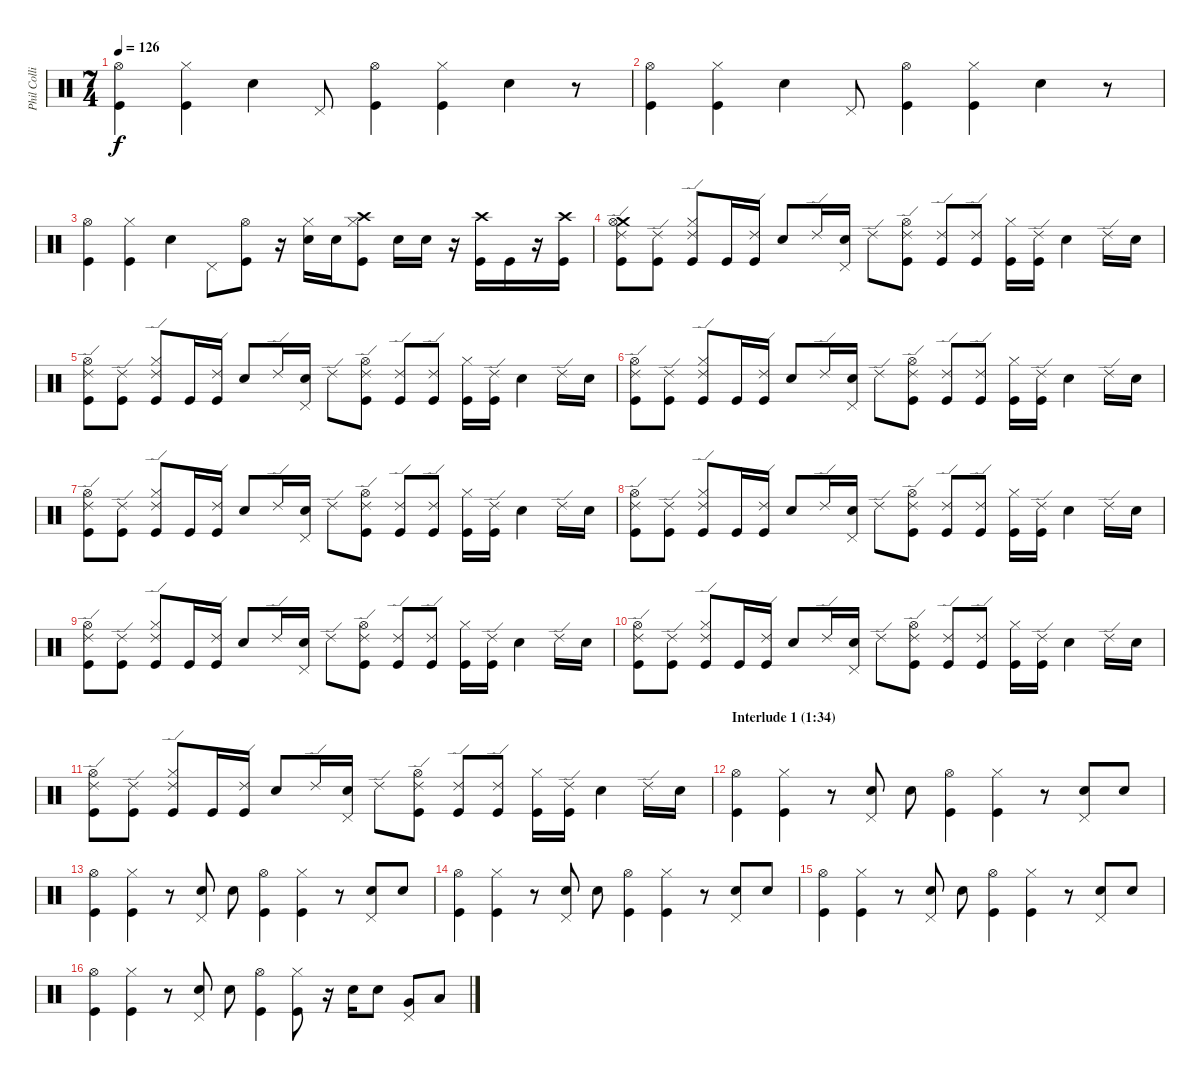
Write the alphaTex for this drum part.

\track ("Phil Collins (drums)" "Phil Colli") {instrument percussion}
\staff {score}
\articulation defaults
\ts (7 4)
\tempo 126
\clef neutral
\ks c
("Hi-Hat (open)" "Kick (hit)").4{dy f} ("Hi-Hat (closed)" "Kick (hit)").4 "Snare (hit) 2".4 "Pedal Hi-Hat (hit)".8 ("Hi-Hat (open)" "Kick (hit)").4 ("Hi-Hat (closed)" "Kick (hit)").4 "Snare (hit) 2".4 r.8 |
("Hi-Hat (open)" "Kick (hit)").4 ("Hi-Hat (closed)" "Kick (hit)").4 "Snare (hit) 2".4 "Pedal Hi-Hat (hit)".8 ("Hi-Hat (open)" "Kick (hit)").4 ("Hi-Hat (closed)" "Kick (hit)").4 "Snare (hit) 2".4 r.8 |
("Hi-Hat (open)" "Kick (hit)").4 ("Hi-Hat (closed)" "Kick (hit)").4 "Snare (hit) 2".4 "Pedal Hi-Hat (hit)".8 ("Hi-Hat (open)" "Kick (hit)").8 r.16 ("Hi-Hat (closed)" "Snare (hit) 2").16 "Snare (hit) 2".16 ("Crash high (hit)" "Hi-Hat (closed)" "Kick (hit)").8 "Snare (hit) 2".16 "Snare (hit) 2".16 r.16 ("Crash high (hit)" "Kick (hit)").16 "Kick (hit)".16 r.16 ("Crash high (hit)" "Kick (hit)").16 |
("Crash medium (hit)" "Ride (edge) 2" "Hi-Hat (open)" "Kick (hit)").8 ("Ride (edge) 2" "Kick (hit)").8 ("Ride (edge) 2" "Hi-Hat (closed)" "Kick (hit)").8 "Kick (hit)".16 ("Ride (edge) 2" "Kick (hit)").16 "Snare (hit) 2".8 "Ride (edge) 2".16 ("Pedal Hi-Hat (hit)" "Snare (hit) 2").16 "Ride (edge) 2".8 ("Ride (edge) 2" "Hi-Hat (open)" "Kick (hit)").8 ("Ride (edge) 2" "Kick (hit)").8 ("Ride (edge) 2" "Kick (hit)").8 ("Hi-Hat (closed)" "Kick (hit)").16 ("Ride (edge) 2" "Kick (hit)").16 "Snare (hit) 2".4 "Ride (edge) 2".16 "Snare (hit) 2".16 |
("Ride (edge) 2" "Hi-Hat (open)" "Kick (hit)").8 ("Ride (edge) 2" "Kick (hit)").8 ("Ride (edge) 2" "Hi-Hat (closed)" "Kick (hit)").8 "Kick (hit)".16 ("Ride (edge) 2" "Kick (hit)").16 "Snare (hit) 2".8 "Ride (edge) 2".16 ("Pedal Hi-Hat (hit)" "Snare (hit) 2").16 "Ride (edge) 2".8 ("Ride (edge) 2" "Hi-Hat (open)" "Kick (hit)").8 ("Ride (edge) 2" "Kick (hit)").8 ("Ride (edge) 2" "Kick (hit)").8 ("Hi-Hat (closed)" "Kick (hit)").16 ("Ride (edge) 2" "Kick (hit)").16 "Snare (hit) 2".4 "Ride (edge) 2".16 "Snare (hit) 2".16 |
("Ride (edge) 2" "Hi-Hat (open)" "Kick (hit)").8 ("Ride (edge) 2" "Kick (hit)").8 ("Ride (edge) 2" "Hi-Hat (closed)" "Kick (hit)").8 "Kick (hit)".16 ("Ride (edge) 2" "Kick (hit)").16 "Snare (hit) 2".8 "Ride (edge) 2".16 ("Pedal Hi-Hat (hit)" "Snare (hit) 2").16 "Ride (edge) 2".8 ("Ride (edge) 2" "Hi-Hat (open)" "Kick (hit)").8 ("Ride (edge) 2" "Kick (hit)").8 ("Ride (edge) 2" "Kick (hit)").8 ("Hi-Hat (closed)" "Kick (hit)").16 ("Ride (edge) 2" "Kick (hit)").16 "Snare (hit) 2".4 "Ride (edge) 2".16 "Snare (hit) 2".16 |
("Ride (edge) 2" "Hi-Hat (open)" "Kick (hit)").8 ("Ride (edge) 2" "Kick (hit)").8 ("Ride (edge) 2" "Hi-Hat (closed)" "Kick (hit)").8 "Kick (hit)".16 ("Ride (edge) 2" "Kick (hit)").16 "Snare (hit) 2".8 "Ride (edge) 2".16 ("Pedal Hi-Hat (hit)" "Snare (hit) 2").16 "Ride (edge) 2".8 ("Ride (edge) 2" "Hi-Hat (open)" "Kick (hit)").8 ("Ride (edge) 2" "Kick (hit)").8 ("Ride (edge) 2" "Kick (hit)").8 ("Hi-Hat (closed)" "Kick (hit)").16 ("Ride (edge) 2" "Kick (hit)").16 "Snare (hit) 2".4 "Ride (edge) 2".16 "Snare (hit) 2".16 |
("Ride (edge) 2" "Hi-Hat (open)" "Kick (hit)").8 ("Ride (edge) 2" "Kick (hit)").8 ("Ride (edge) 2" "Hi-Hat (closed)" "Kick (hit)").8 "Kick (hit)".16 ("Ride (edge) 2" "Kick (hit)").16 "Snare (hit) 2".8 "Ride (edge) 2".16 ("Pedal Hi-Hat (hit)" "Snare (hit) 2").16 "Ride (edge) 2".8 ("Ride (edge) 2" "Hi-Hat (open)" "Kick (hit)").8 ("Ride (edge) 2" "Kick (hit)").8 ("Ride (edge) 2" "Kick (hit)").8 ("Hi-Hat (closed)" "Kick (hit)").16 ("Ride (edge) 2" "Kick (hit)").16 "Snare (hit) 2".4 "Ride (edge) 2".16 "Snare (hit) 2".16 |
("Ride (edge) 2" "Hi-Hat (open)" "Kick (hit)").8 ("Ride (edge) 2" "Kick (hit)").8 ("Ride (edge) 2" "Hi-Hat (closed)" "Kick (hit)").8 "Kick (hit)".16 ("Ride (edge) 2" "Kick (hit)").16 "Snare (hit) 2".8 "Ride (edge) 2".16 ("Pedal Hi-Hat (hit)" "Snare (hit) 2").16 "Ride (edge) 2".8 ("Ride (edge) 2" "Hi-Hat (open)" "Kick (hit)").8 ("Ride (edge) 2" "Kick (hit)").8 ("Ride (edge) 2" "Kick (hit)").8 ("Hi-Hat (closed)" "Kick (hit)").16 ("Ride (edge) 2" "Kick (hit)").16 "Snare (hit) 2".4 "Ride (edge) 2".16 "Snare (hit) 2".16 |
("Ride (edge) 2" "Hi-Hat (open)" "Kick (hit)").8 ("Ride (edge) 2" "Kick (hit)").8 ("Ride (edge) 2" "Hi-Hat (closed)" "Kick (hit)").8 "Kick (hit)".16 ("Ride (edge) 2" "Kick (hit)").16 "Snare (hit) 2".8 "Ride (edge) 2".16 ("Pedal Hi-Hat (hit)" "Snare (hit) 2").16 "Ride (edge) 2".8 ("Ride (edge) 2" "Hi-Hat (open)" "Kick (hit)").8 ("Ride (edge) 2" "Kick (hit)").8 ("Ride (edge) 2" "Kick (hit)").8 ("Hi-Hat (closed)" "Kick (hit)").16 ("Ride (edge) 2" "Kick (hit)").16 "Snare (hit) 2".4 "Ride (edge) 2".16 "Snare (hit) 2".16 |
("Ride (edge) 2" "Hi-Hat (open)" "Kick (hit)").8 ("Ride (edge) 2" "Kick (hit)").8 ("Ride (edge) 2" "Hi-Hat (closed)" "Kick (hit)").8 "Kick (hit)".16 ("Ride (edge) 2" "Kick (hit)").16 "Snare (hit) 2".8 "Ride (edge) 2".16 ("Pedal Hi-Hat (hit)" "Snare (hit) 2").16 "Ride (edge) 2".8 ("Ride (edge) 2" "Hi-Hat (open)" "Kick (hit)").8 ("Ride (edge) 2" "Kick (hit)").8 ("Ride (edge) 2" "Kick (hit)").8 ("Hi-Hat (closed)" "Kick (hit)").16 ("Ride (edge) 2" "Kick (hit)").16 "Snare (hit) 2".4 "Ride (edge) 2".16 "Snare (hit) 2".16 |
\section ("" "Interlude 1 (1:34)")
("Hi-Hat (open)" "Kick (hit)").4 ("Hi-Hat (closed)" "Kick (hit)").4 r.8 ("Pedal Hi-Hat (hit)" "Snare (hit) 2").8 "Snare (hit) 2".8 ("Hi-Hat (open)" "Kick (hit)").4 ("Hi-Hat (closed)" "Kick (hit)").4 r.8 ("Pedal Hi-Hat (hit)" "Snare (hit) 2").8 "Snare (hit) 2".8 |
("Hi-Hat (open)" "Kick (hit)").4 ("Hi-Hat (closed)" "Kick (hit)").4 r.8 ("Pedal Hi-Hat (hit)" "Snare (hit) 2").8 "Snare (hit) 2".8 ("Hi-Hat (open)" "Kick (hit)").4 ("Hi-Hat (closed)" "Kick (hit)").4 r.8 ("Pedal Hi-Hat (hit)" "Snare (hit) 2").8 "Snare (hit) 2".8 |
("Hi-Hat (open)" "Kick (hit)").4 ("Hi-Hat (closed)" "Kick (hit)").4 r.8 ("Pedal Hi-Hat (hit)" "Snare (hit) 2").8 "Snare (hit) 2".8 ("Hi-Hat (open)" "Kick (hit)").4 ("Hi-Hat (closed)" "Kick (hit)").4 r.8 ("Pedal Hi-Hat (hit)" "Snare (hit) 2").8 "Snare (hit) 2".8 |
("Hi-Hat (open)" "Kick (hit)").4 ("Hi-Hat (closed)" "Kick (hit)").4 r.8 ("Pedal Hi-Hat (hit)" "Snare (hit) 2").8 "Snare (hit) 2".8 ("Hi-Hat (open)" "Kick (hit)").4 ("Hi-Hat (closed)" "Kick (hit)").4 r.8 ("Pedal Hi-Hat (hit)" "Snare (hit) 2").8 "Snare (hit) 2".8 |
("Hi-Hat (open)" "Kick (hit)").4 ("Hi-Hat (closed)" "Kick (hit)").4 r.8 ("Pedal Hi-Hat (hit)" "Snare (hit) 2").8 "Snare (hit) 2".8 ("Hi-Hat (open)" "Kick (hit)").4 ("Hi-Hat (closed)" "Kick (hit)").8 r.16 "Snare (hit) 2".16 "Snare (hit) 2".8 ("Pedal Hi-Hat (hit)" "Very Low Tom (hit)").8 "Low Floor Tom (hit)".8
